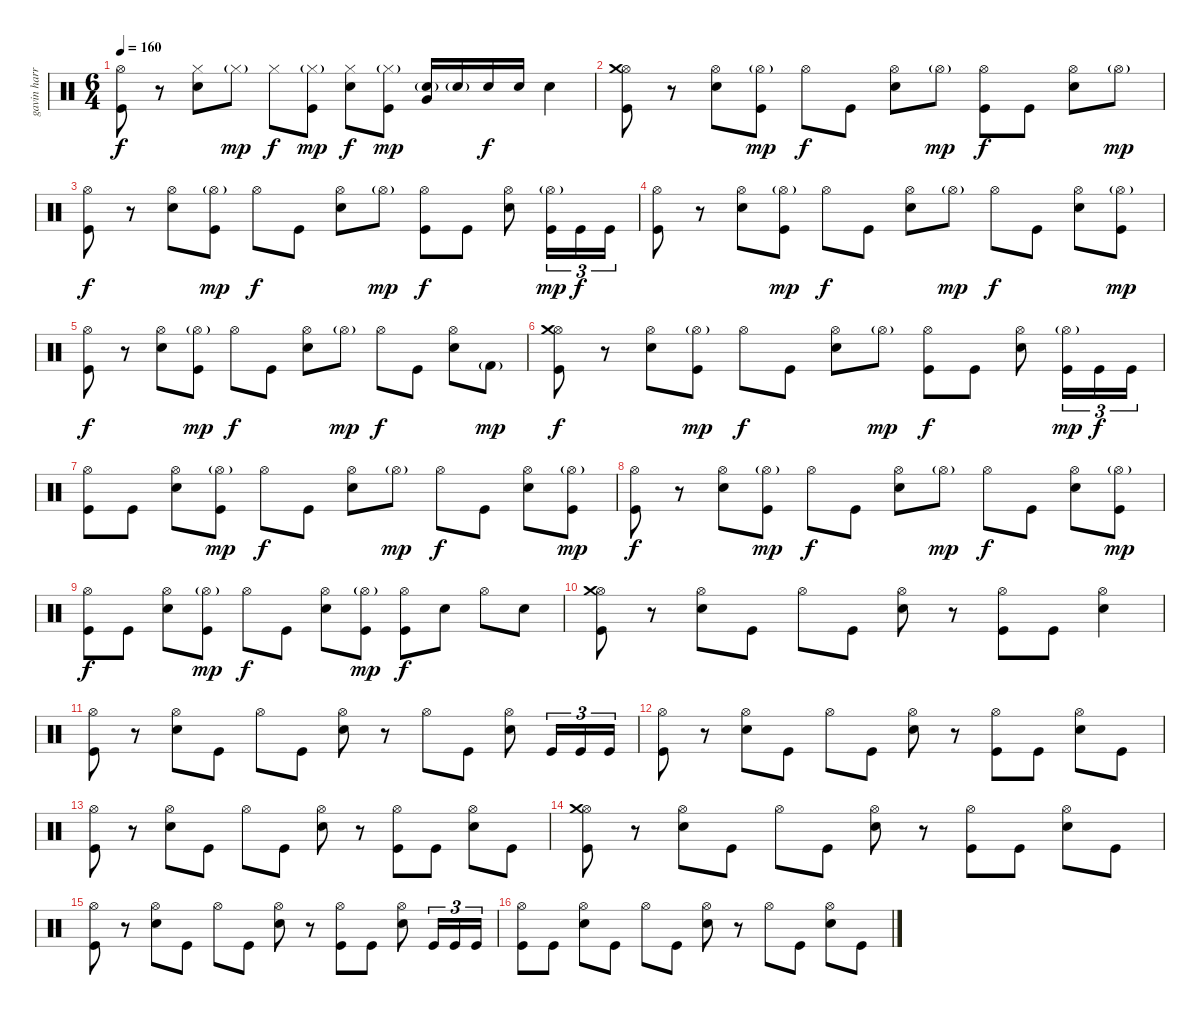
\track ("gavin harrison ( drum ) " "gavin harr") {instrument percussion}
\staff {score}
\articulation defaults
\ts (6 4)
\tempo 160
\clef neutral
\ks c
("Hi-Hat (open)" "Kick (hit)").8{dy f} r.8 ("Hi-Hat (closed)" "Snare (hit) 2").8 "Hi-Hat (closed)"{g}.8{dy mp} "Hi-Hat (closed)".8{dy f} ("Hi-Hat (closed)"{g} "Kick (hit)").8{dy mp} ("Hi-Hat (closed)" "Snare (hit) 2").8{dy f} ("Hi-Hat (closed)"{g} "Kick (hit)").8{dy mp} ("Snare (hit) 2"{g} "Very Low Tom (hit)").16 "Snare (hit) 2"{g}.16 "Snare (hit) 2".16{dy f} "Snare (hit) 2".16 "Snare (hit) 2".4 |
("Hi-Hat (open)" "Crash medium (hit)" "Kick (hit)").8 r.8 ("Hi-Hat (open)" "Snare (hit) 2").8 ("Hi-Hat (open)"{g} "Kick (hit)").8{dy mp} "Hi-Hat (open)".8{dy f} "Kick (hit)".8 ("Hi-Hat (open)" "Snare (hit) 2").8 "Hi-Hat (open)"{g}.8{dy mp} ("Hi-Hat (open)" "Kick (hit)").8{dy f} "Kick (hit)".8 ("Hi-Hat (open)" "Snare (hit) 2").8 "Hi-Hat (open)"{g}.8{dy mp} |
("Hi-Hat (open)" "Kick (hit)").8{dy f} r.8 ("Hi-Hat (open)" "Snare (hit) 2").8 ("Hi-Hat (open)"{g} "Kick (hit)").8{dy mp} "Hi-Hat (open)".8{dy f} "Kick (hit)".8 ("Hi-Hat (open)" "Snare (hit) 2").8 "Hi-Hat (open)"{g}.8{dy mp} ("Hi-Hat (open)" "Kick (hit)").8{dy f} "Kick (hit)".8 ("Hi-Hat (open)" "Snare (hit) 2").8 ("Hi-Hat (open)"{g} "Kick (hit)").16{tu (3 2) dy mp} "Kick (hit)".16{tu (3 2) dy f} "Kick (hit)".16{tu (3 2)} |
("Hi-Hat (open)" "Kick (hit)").8 r.8 ("Hi-Hat (open)" "Snare (hit) 2").8 ("Hi-Hat (open)"{g} "Kick (hit)").8{dy mp} "Hi-Hat (open)".8{dy f} "Kick (hit)".8 ("Hi-Hat (open)" "Snare (hit) 2").8 "Hi-Hat (open)"{g}.8{dy mp} "Hi-Hat (open)".8{dy f} "Kick (hit)".8 ("Hi-Hat (open)" "Snare (hit) 2").8 ("Hi-Hat (open)"{g} "Kick (hit)").8{dy mp} |
("Hi-Hat (open)" "Kick (hit)").8{dy f} r.8 ("Hi-Hat (open)" "Snare (hit) 2").8 ("Hi-Hat (open)"{g} "Kick (hit)").8{dy mp} "Hi-Hat (open)".8{dy f} "Kick (hit)".8 ("Hi-Hat (open)" "Snare (hit) 2").8 "Hi-Hat (open)"{g}.8{dy mp} "Hi-Hat (open)".8{dy f} "Kick (hit)".8 ("Hi-Hat (open)" "Snare (hit) 2").8 "Kick (hit) 2"{g}.8{dy mp} |
("Hi-Hat (open)" "Crash medium (hit)" "Kick (hit)").8{dy f} r.8 ("Hi-Hat (open)" "Snare (hit) 2").8 ("Hi-Hat (open)"{g} "Kick (hit)").8{dy mp} "Hi-Hat (open)".8{dy f} "Kick (hit)".8 ("Hi-Hat (open)" "Snare (hit) 2").8 "Hi-Hat (open)"{g}.8{dy mp} ("Hi-Hat (open)" "Kick (hit)").8{dy f} "Kick (hit)".8 ("Hi-Hat (open)" "Snare (hit) 2").8 ("Hi-Hat (open)"{g} "Kick (hit)").16{tu (3 2) dy mp} "Kick (hit)".16{tu (3 2) dy f} "Kick (hit)".16{tu (3 2)} |
("Hi-Hat (open)" "Kick (hit)").8 "Kick (hit)".8 ("Hi-Hat (open)" "Snare (hit) 2").8 ("Hi-Hat (open)"{g} "Kick (hit)").8{dy mp} "Hi-Hat (open)".8{dy f} "Kick (hit)".8 ("Hi-Hat (open)" "Snare (hit) 2").8 "Hi-Hat (open)"{g}.8{dy mp} "Hi-Hat (open)".8{dy f} "Kick (hit)".8 ("Hi-Hat (open)" "Snare (hit) 2").8 ("Hi-Hat (open)"{g} "Kick (hit)").8{dy mp} |
("Hi-Hat (open)" "Kick (hit)").8{dy f} r.8 ("Hi-Hat (open)" "Snare (hit) 2").8 ("Hi-Hat (open)"{g} "Kick (hit)").8{dy mp} "Hi-Hat (open)".8{dy f} "Kick (hit)".8 ("Hi-Hat (open)" "Snare (hit) 2").8 "Hi-Hat (open)"{g}.8{dy mp} "Hi-Hat (open)".8{dy f} "Kick (hit)".8 ("Hi-Hat (open)" "Snare (hit) 2").8 ("Hi-Hat (open)"{g} "Kick (hit)").8{dy mp} |
("Hi-Hat (open)" "Kick (hit)").8{dy f} "Kick (hit)".8 ("Hi-Hat (open)" "Snare (hit) 2").8 ("Hi-Hat (open)"{g} "Kick (hit)").8{dy mp} "Hi-Hat (open)".8{dy f} "Kick (hit)".8 ("Hi-Hat (open)" "Snare (hit) 2").8 ("Hi-Hat (open)"{g} "Kick (hit)").8{dy mp} ("Hi-Hat (open)" "Kick (hit)").8{dy f} "Snare (hit) 2".8 "Hi-Hat (open)".8 "Snare (hit) 2".8 |
("Hi-Hat (open)" "Crash medium (hit)" "Kick (hit)").8 r.8 ("Hi-Hat (open)" "Snare (hit) 2").8 "Kick (hit)".8 "Hi-Hat (open)".8 "Kick (hit)".8 ("Hi-Hat (open)" "Snare (hit) 2").8 r.8 ("Hi-Hat (open)" "Kick (hit)").8 "Kick (hit)".8 ("Hi-Hat (open)" "Snare (hit) 2").4 |
("Hi-Hat (open)" "Kick (hit)").8 r.8 ("Hi-Hat (open)" "Snare (hit) 2").8 "Kick (hit)".8 "Hi-Hat (open)".8 "Kick (hit)".8 ("Hi-Hat (open)" "Snare (hit) 2").8 r.8 "Hi-Hat (open)".8 "Kick (hit)".8 ("Hi-Hat (open)" "Snare (hit) 2").8 "Kick (hit)".16{tu (3 2)} "Kick (hit)".16{tu (3 2)} "Kick (hit)".16{tu (3 2)} |
("Hi-Hat (open)" "Kick (hit)").8 r.8 ("Hi-Hat (open)" "Snare (hit) 2").8 "Kick (hit)".8 "Hi-Hat (open)".8 "Kick (hit)".8 ("Hi-Hat (open)" "Snare (hit) 2").8 r.8 ("Hi-Hat (open)" "Kick (hit)").8 "Kick (hit)".8 ("Hi-Hat (open)" "Snare (hit) 2").8 "Kick (hit)".8 |
("Hi-Hat (open)" "Kick (hit)").8 r.8 ("Hi-Hat (open)" "Snare (hit) 2").8 "Kick (hit)".8 "Hi-Hat (open)".8 "Kick (hit)".8 ("Hi-Hat (open)" "Snare (hit) 2").8 r.8 ("Hi-Hat (open)" "Kick (hit)").8 "Kick (hit)".8 ("Hi-Hat (open)" "Snare (hit) 2").8 "Kick (hit)".8 |
("Hi-Hat (open)" "Crash medium (hit)" "Kick (hit)").8 r.8 ("Hi-Hat (open)" "Snare (hit) 2").8 "Kick (hit)".8 "Hi-Hat (open)".8 "Kick (hit)".8 ("Hi-Hat (open)" "Snare (hit) 2").8 r.8 ("Hi-Hat (open)" "Kick (hit)").8 "Kick (hit)".8 ("Hi-Hat (open)" "Snare (hit) 2").8 "Kick (hit)".8 |
("Hi-Hat (open)" "Kick (hit)").8 r.8 ("Hi-Hat (open)" "Snare (hit) 2").8 "Kick (hit)".8 "Hi-Hat (open)".8 "Kick (hit)".8 ("Hi-Hat (open)" "Snare (hit) 2").8 r.8 ("Hi-Hat (open)" "Kick (hit)").8 "Kick (hit)".8 ("Hi-Hat (open)" "Snare (hit) 2").8 "Kick (hit)".16{tu (3 2)} "Kick (hit)".16{tu (3 2)} "Kick (hit)".16{tu (3 2)} |
("Hi-Hat (open)" "Kick (hit)").8 "Kick (hit)".8 ("Hi-Hat (open)" "Snare (hit) 2").8 "Kick (hit)".8 "Hi-Hat (open)".8 "Kick (hit)".8 ("Hi-Hat (open)" "Snare (hit) 2").8 r.8 "Hi-Hat (open)".8 "Kick (hit)".8 ("Hi-Hat (open)" "Snare (hit) 2").8 "Kick (hit)".8
